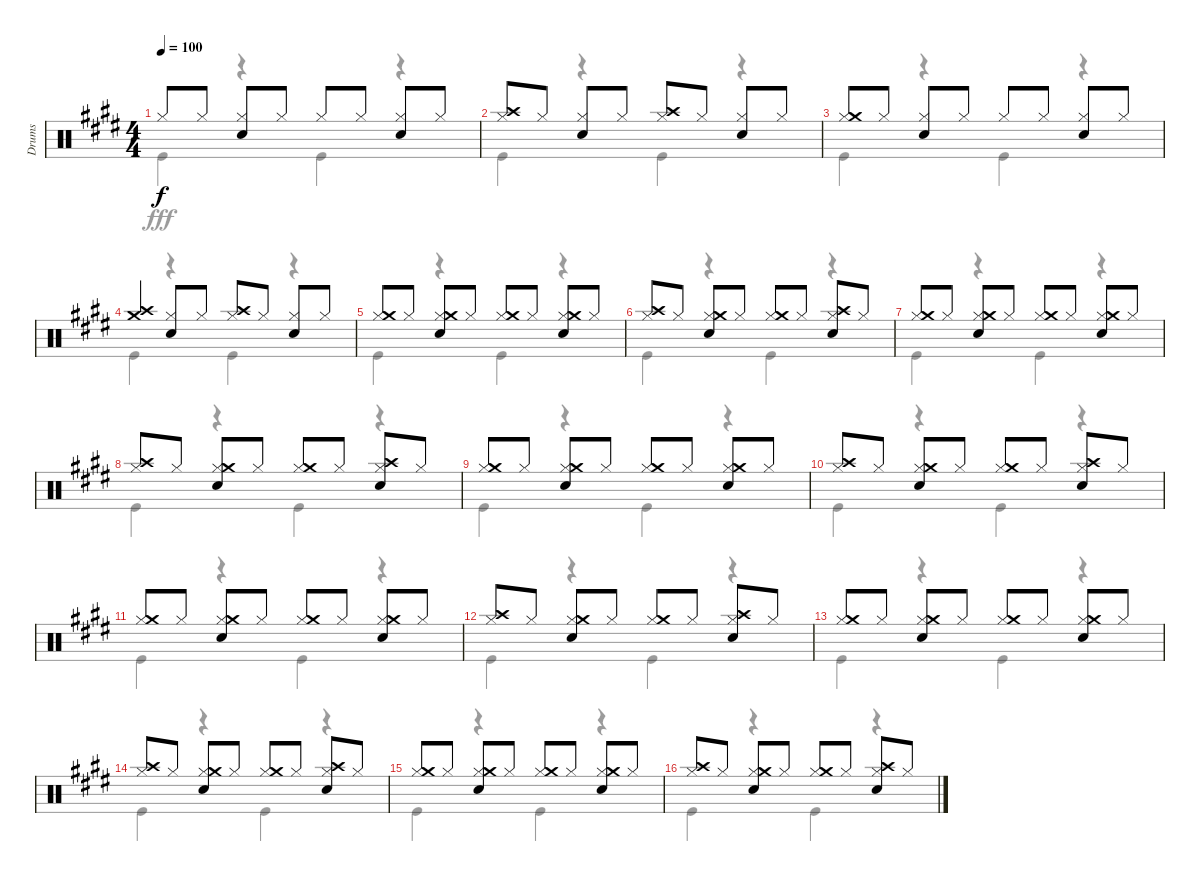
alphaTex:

\track ("Drums" "Drums") {instrument percussion}
\staff {score}
\articulation defaults
\voice
\ts (4 4)
\tempo 100
\clef neutral
\ks e "Hi-Hat (closed)".8{dy f} "Hi-Hat (closed)".8
("Hi-Hat (closed)" "Snare (hit) 2").8 "Hi-Hat (closed)".8 "Hi-Hat (closed)".8 "Hi-Hat (closed)".8 ("Hi-Hat (closed)" "Snare (hit) 2").8 "Hi-Hat (closed)".8 |
("Hi-Hat (closed)" "Crash high (hit)").8 "Hi-Hat (closed)".8 ("Hi-Hat (closed)" "Snare (hit) 2").8 "Hi-Hat (closed)".8 ("Hi-Hat (closed)" "Crash high (hit)").8 "Hi-Hat (closed)".8 ("Hi-Hat (closed)" "Snare (hit) 2").8 "Hi-Hat (closed)".8 |
("Hi-Hat (closed)" "Crash medium (hit)").8 "Hi-Hat (closed)".8 ("Hi-Hat (closed)" "Snare (hit) 2").8 "Hi-Hat (closed)".8 "Hi-Hat (closed)".8 "Hi-Hat (closed)".8 ("Hi-Hat (closed)" "Snare (hit) 2").8 "Hi-Hat (closed)".8 |
("Crash high (hit)" "Crash medium (hit)").4 ("Hi-Hat (closed)" "Snare (hit) 2").8 "Hi-Hat (closed)".8 ("Hi-Hat (closed)" "Crash high (hit)").8 "Hi-Hat (closed)".8 ("Hi-Hat (closed)" "Snare (hit) 2").8 "Hi-Hat (closed)".8 |
("Hi-Hat (closed)" "Crash medium (hit)").8 "Hi-Hat (closed)".8 ("Hi-Hat (closed)" "Snare (hit) 2" "Crash medium (hit)").8 "Hi-Hat (closed)".8 ("Hi-Hat (closed)" "Crash medium (hit)").8 "Hi-Hat (closed)".8 ("Hi-Hat (closed)" "Snare (hit) 2" "Crash medium (hit)").8 "Hi-Hat (closed)".8 |
("Hi-Hat (closed)" "Crash high (hit)").8 "Hi-Hat (closed)".8 ("Hi-Hat (closed)" "Snare (hit) 2" "Crash medium (hit)").8 "Hi-Hat (closed)".8 ("Hi-Hat (closed)" "Crash medium (hit)").8 "Hi-Hat (closed)".8 ("Hi-Hat (closed)" "Snare (hit) 2" "Crash high (hit)").8 "Hi-Hat (closed)".8 |
("Hi-Hat (closed)" "Crash medium (hit)").8 "Hi-Hat (closed)".8 ("Hi-Hat (closed)" "Snare (hit) 2" "Crash medium (hit)").8 "Hi-Hat (closed)".8 ("Hi-Hat (closed)" "Crash medium (hit)").8 "Hi-Hat (closed)".8 ("Hi-Hat (closed)" "Snare (hit) 2" "Crash medium (hit)").8 "Hi-Hat (closed)".8 |
("Hi-Hat (closed)" "Crash high (hit)").8 "Hi-Hat (closed)".8 ("Hi-Hat (closed)" "Snare (hit) 2" "Crash medium (hit)").8 "Hi-Hat (closed)".8 ("Hi-Hat (closed)" "Crash medium (hit)").8 "Hi-Hat (closed)".8 ("Hi-Hat (closed)" "Snare (hit) 2" "Crash high (hit)").8 "Hi-Hat (closed)".8 |
("Hi-Hat (closed)" "Crash medium (hit)").8 "Hi-Hat (closed)".8 ("Hi-Hat (closed)" "Snare (hit) 2" "Crash medium (hit)").8 "Hi-Hat (closed)".8 ("Hi-Hat (closed)" "Crash medium (hit)").8 "Hi-Hat (closed)".8 ("Hi-Hat (closed)" "Snare (hit) 2" "Crash medium (hit)").8 "Hi-Hat (closed)".8 |
("Hi-Hat (closed)" "Crash high (hit)").8 "Hi-Hat (closed)".8 ("Hi-Hat (closed)" "Snare (hit) 2" "Crash medium (hit)").8 "Hi-Hat (closed)".8 ("Hi-Hat (closed)" "Crash medium (hit)").8 "Hi-Hat (closed)".8 ("Hi-Hat (closed)" "Snare (hit) 2" "Crash high (hit)").8 "Hi-Hat (closed)".8 |
("Hi-Hat (closed)" "Crash medium (hit)").8 "Hi-Hat (closed)".8 ("Hi-Hat (closed)" "Snare (hit) 2" "Crash medium (hit)").8 "Hi-Hat (closed)".8 ("Hi-Hat (closed)" "Crash medium (hit)").8 "Hi-Hat (closed)".8 ("Hi-Hat (closed)" "Snare (hit) 2" "Crash medium (hit)").8 "Hi-Hat (closed)".8 |
("Hi-Hat (closed)" "Crash high (hit)").8 "Hi-Hat (closed)".8 ("Hi-Hat (closed)" "Snare (hit) 2" "Crash medium (hit)").8 "Hi-Hat (closed)".8 ("Hi-Hat (closed)" "Crash medium (hit)").8 "Hi-Hat (closed)".8 ("Hi-Hat (closed)" "Snare (hit) 2" "Crash high (hit)").8 "Hi-Hat (closed)".8 |
("Hi-Hat (closed)" "Crash medium (hit)").8 "Hi-Hat (closed)".8 ("Hi-Hat (closed)" "Snare (hit) 2" "Crash medium (hit)").8 "Hi-Hat (closed)".8 ("Hi-Hat (closed)" "Crash medium (hit)").8 "Hi-Hat (closed)".8 ("Hi-Hat (closed)" "Snare (hit) 2" "Crash medium (hit)").8 "Hi-Hat (closed)".8 |
("Hi-Hat (closed)" "Crash high (hit)").8 "Hi-Hat (closed)".8 ("Hi-Hat (closed)" "Snare (hit) 2" "Crash medium (hit)").8 "Hi-Hat (closed)".8 ("Hi-Hat (closed)" "Crash medium (hit)").8 "Hi-Hat (closed)".8 ("Hi-Hat (closed)" "Snare (hit) 2" "Crash high (hit)").8 "Hi-Hat (closed)".8 |
("Hi-Hat (closed)" "Crash medium (hit)").8 "Hi-Hat (closed)".8 ("Hi-Hat (closed)" "Snare (hit) 2" "Crash medium (hit)").8 "Hi-Hat (closed)".8 ("Hi-Hat (closed)" "Crash medium (hit)").8 "Hi-Hat (closed)".8 ("Hi-Hat (closed)" "Snare (hit) 2" "Crash medium (hit)").8 "Hi-Hat (closed)".8 |
("Hi-Hat (closed)" "Crash high (hit)").8 "Hi-Hat (closed)".8 ("Hi-Hat (closed)" "Snare (hit) 2" "Crash medium (hit)").8 "Hi-Hat (closed)".8 ("Hi-Hat (closed)" "Crash medium (hit)").8 "Hi-Hat (closed)".8 ("Hi-Hat (closed)" "Snare (hit) 2" "Crash high (hit)").8 "Hi-Hat (closed)".8
\voice
\clef neutral
\ottava regular
\simile none
\ks e "Kick (hit)".4{dy fff}
r.4 "Kick (hit)".4 r.4 |
"Kick (hit)".4 r.4 "Kick (hit)".4 r.4 |
"Kick (hit)".4 r.4 "Kick (hit)".4 r.4 |
"Kick (hit)".4 r.4 "Kick (hit)".4 r.4 |
"Kick (hit)".4 r.4 "Kick (hit)".4 r.4 |
"Kick (hit)".4 r.4 "Kick (hit)".4 r.4 |
"Kick (hit)".4 r.4 "Kick (hit)".4 r.4 |
"Kick (hit)".4 r.4 "Kick (hit)".4 r.4 |
"Kick (hit)".4 r.4 "Kick (hit)".4 r.4 |
"Kick (hit)".4 r.4 "Kick (hit)".4 r.4 |
"Kick (hit)".4 r.4 "Kick (hit)".4 r.4 |
"Kick (hit)".4 r.4 "Kick (hit)".4 r.4 |
"Kick (hit)".4 r.4 "Kick (hit)".4 r.4 |
"Kick (hit)".4 r.4 "Kick (hit)".4 r.4 |
"Kick (hit)".4 r.4 "Kick (hit)".4 r.4 |
"Kick (hit)".4 r.4 "Kick (hit)".4 r.4
